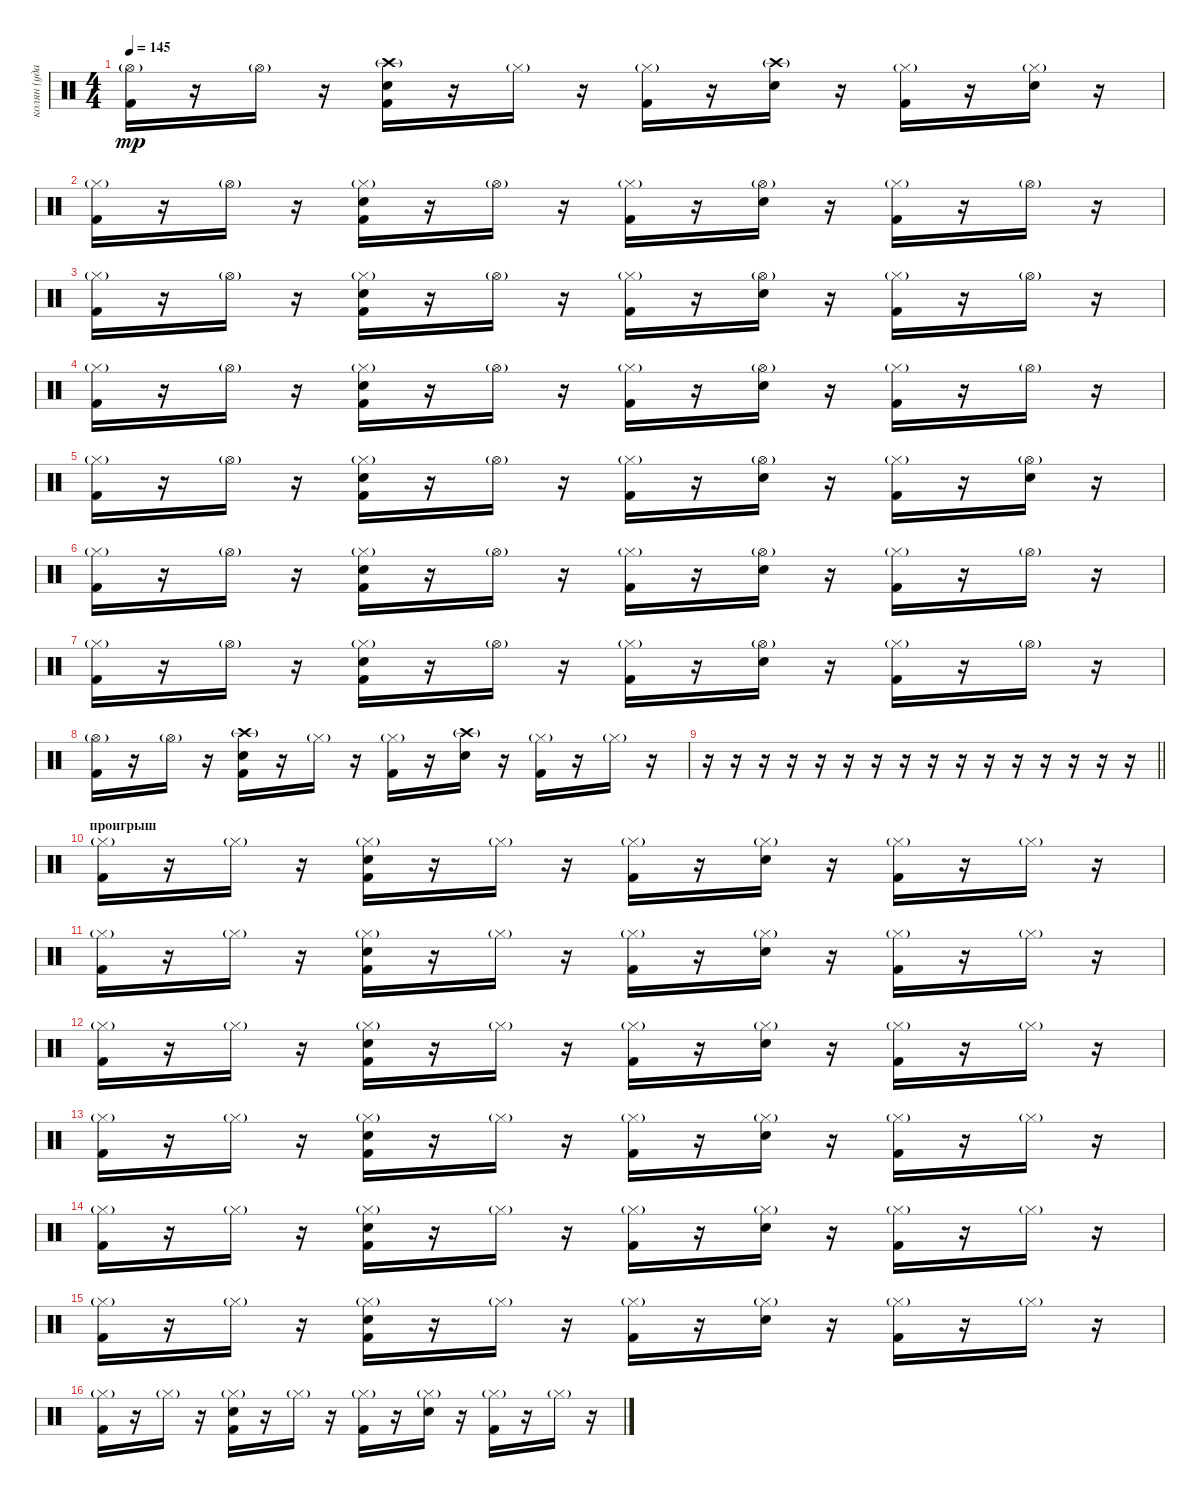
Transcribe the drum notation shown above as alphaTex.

\track ("колян (ударные)" "колян (уда") {instrument percussion}
\staff {score}
\articulation defaults
\ts (4 4)
\tempo 145
\clef neutral
\ks c
("Kick (hit) 2" "Hi-Hat (open)"{g}).16{dy mp} r.16 "Hi-Hat (open)"{g}.16 r.16 ("Snare (hit) 2" "Kick (hit) 2" "Crash high (hit)"{g}).16 r.16 "Hi-Hat (closed)"{g}.16 r.16 ("Kick (hit) 2" "Hi-Hat (closed)"{g}).16 r.16 ("Snare (hit) 2" "Crash high (hit)"{g}).16 r.16 ("Kick (hit) 2" "Hi-Hat (closed)"{g}).16 r.16 ("Snare (hit) 2" "Hi-Hat (closed)"{g}).16 r.16 |
("Kick (hit) 2" "Hi-Hat (closed)"{g}).16 r.16 "Hi-Hat (open)"{g}.16 r.16 ("Snare (hit) 2" "Kick (hit) 2" "Hi-Hat (closed)"{g}).16 r.16 "Hi-Hat (open)"{g}.16 r.16 ("Kick (hit) 2" "Hi-Hat (closed)"{g}).16 r.16 ("Snare (hit) 2" "Hi-Hat (open)"{g}).16 r.16 ("Kick (hit) 2" "Hi-Hat (closed)"{g}).16 r.16 "Hi-Hat (open)"{g}.16 r.16 |
("Kick (hit) 2" "Hi-Hat (closed)"{g}).16 r.16 "Hi-Hat (open)"{g}.16 r.16 ("Snare (hit) 2" "Kick (hit) 2" "Hi-Hat (closed)"{g}).16 r.16 "Hi-Hat (open)"{g}.16 r.16 ("Kick (hit) 2" "Hi-Hat (closed)"{g}).16 r.16 ("Snare (hit) 2" "Hi-Hat (open)"{g}).16 r.16 ("Kick (hit) 2" "Hi-Hat (closed)"{g}).16 r.16 "Hi-Hat (open)"{g}.16 r.16 |
("Kick (hit) 2" "Hi-Hat (closed)"{g}).16 r.16 "Hi-Hat (open)"{g}.16 r.16 ("Snare (hit) 2" "Kick (hit) 2" "Hi-Hat (closed)"{g}).16 r.16 "Hi-Hat (open)"{g}.16 r.16 ("Kick (hit) 2" "Hi-Hat (closed)"{g}).16 r.16 ("Snare (hit) 2" "Hi-Hat (open)"{g}).16 r.16 ("Kick (hit) 2" "Hi-Hat (closed)"{g}).16 r.16 "Hi-Hat (open)"{g}.16 r.16 |
("Kick (hit) 2" "Hi-Hat (closed)"{g}).16 r.16 "Hi-Hat (open)"{g}.16 r.16 ("Snare (hit) 2" "Kick (hit) 2" "Hi-Hat (closed)"{g}).16 r.16 "Hi-Hat (open)"{g}.16 r.16 ("Kick (hit) 2" "Hi-Hat (closed)"{g}).16 r.16 ("Snare (hit) 2" "Hi-Hat (open)"{g}).16 r.16 ("Kick (hit) 2" "Hi-Hat (closed)"{g}).16 r.16 ("Snare (hit) 2" "Hi-Hat (open)"{g}).16 r.16 |
("Kick (hit) 2" "Hi-Hat (closed)"{g}).16 r.16 "Hi-Hat (open)"{g}.16 r.16 ("Snare (hit) 2" "Kick (hit) 2" "Hi-Hat (closed)"{g}).16 r.16 "Hi-Hat (open)"{g}.16 r.16 ("Kick (hit) 2" "Hi-Hat (closed)"{g}).16 r.16 ("Snare (hit) 2" "Hi-Hat (open)"{g}).16 r.16 ("Kick (hit) 2" "Hi-Hat (closed)"{g}).16 r.16 "Hi-Hat (open)"{g}.16 r.16 |
("Kick (hit) 2" "Hi-Hat (closed)"{g}).16 r.16 "Hi-Hat (open)"{g}.16 r.16 ("Snare (hit) 2" "Kick (hit) 2" "Hi-Hat (closed)"{g}).16 r.16 "Hi-Hat (open)"{g}.16 r.16 ("Kick (hit) 2" "Hi-Hat (closed)"{g}).16 r.16 ("Snare (hit) 2" "Hi-Hat (open)"{g}).16 r.16 ("Kick (hit) 2" "Hi-Hat (closed)"{g}).16 r.16 "Hi-Hat (open)"{g}.16 r.16 |
("Kick (hit) 2" "Hi-Hat (open)"{g}).16 r.16 "Hi-Hat (open)"{g}.16 r.16 ("Snare (hit) 2" "Kick (hit) 2" "Crash high (hit)"{g}).16 r.16 "Hi-Hat (closed)"{g}.16 r.16 ("Kick (hit) 2" "Hi-Hat (closed)"{g}).16 r.16 ("Snare (hit) 2" "Crash high (hit)"{g}).16 r.16 ("Kick (hit) 2" "Hi-Hat (closed)"{g}).16 r.16 "Hi-Hat (closed)"{g}.16 r.16 |
\barLineRight lightlight
r.16 r.16 r.16 r.16 r.16 r.16 r.16 r.16 r.16 r.16 r.16 r.16 r.16 r.16 r.16 r.16 |
\section ("" "проигрыш")
("Kick (hit) 2" "Hi-Hat (closed)"{g}).16 r.16 "Hi-Hat (closed)"{g}.16 r.16 ("Snare (hit) 2" "Kick (hit) 2" "Hi-Hat (closed)"{g}).16 r.16 "Hi-Hat (closed)"{g}.16 r.16 ("Kick (hit) 2" "Hi-Hat (closed)"{g}).16 r.16 ("Snare (hit) 2" "Hi-Hat (closed)"{g}).16 r.16 ("Kick (hit) 2" "Hi-Hat (closed)"{g}).16 r.16 "Hi-Hat (closed)"{g}.16 r.16 |
("Kick (hit) 2" "Hi-Hat (closed)"{g}).16 r.16 "Hi-Hat (closed)"{g}.16 r.16 ("Snare (hit) 2" "Kick (hit) 2" "Hi-Hat (closed)"{g}).16 r.16 "Hi-Hat (closed)"{g}.16 r.16 ("Kick (hit) 2" "Hi-Hat (closed)"{g}).16 r.16 ("Snare (hit) 2" "Hi-Hat (closed)"{g}).16 r.16 ("Kick (hit) 2" "Hi-Hat (closed)"{g}).16 r.16 "Hi-Hat (closed)"{g}.16 r.16 |
("Kick (hit) 2" "Hi-Hat (closed)"{g}).16 r.16 "Hi-Hat (closed)"{g}.16 r.16 ("Snare (hit) 2" "Kick (hit) 2" "Hi-Hat (closed)"{g}).16 r.16 "Hi-Hat (closed)"{g}.16 r.16 ("Kick (hit) 2" "Hi-Hat (closed)"{g}).16 r.16 ("Snare (hit) 2" "Hi-Hat (closed)"{g}).16 r.16 ("Kick (hit) 2" "Hi-Hat (closed)"{g}).16 r.16 "Hi-Hat (closed)"{g}.16 r.16 |
("Kick (hit) 2" "Hi-Hat (closed)"{g}).16 r.16 "Hi-Hat (closed)"{g}.16 r.16 ("Snare (hit) 2" "Kick (hit) 2" "Hi-Hat (closed)"{g}).16 r.16 "Hi-Hat (closed)"{g}.16 r.16 ("Kick (hit) 2" "Hi-Hat (closed)"{g}).16 r.16 ("Snare (hit) 2" "Hi-Hat (closed)"{g}).16 r.16 ("Kick (hit) 2" "Hi-Hat (closed)"{g}).16 r.16 "Hi-Hat (closed)"{g}.16 r.16 |
("Kick (hit) 2" "Hi-Hat (closed)"{g}).16 r.16 "Hi-Hat (closed)"{g}.16 r.16 ("Snare (hit) 2" "Kick (hit) 2" "Hi-Hat (closed)"{g}).16 r.16 "Hi-Hat (closed)"{g}.16 r.16 ("Kick (hit) 2" "Hi-Hat (closed)"{g}).16 r.16 ("Snare (hit) 2" "Hi-Hat (closed)"{g}).16 r.16 ("Kick (hit) 2" "Hi-Hat (closed)"{g}).16 r.16 "Hi-Hat (closed)"{g}.16 r.16 |
("Kick (hit) 2" "Hi-Hat (closed)"{g}).16 r.16 "Hi-Hat (closed)"{g}.16 r.16 ("Snare (hit) 2" "Kick (hit) 2" "Hi-Hat (closed)"{g}).16 r.16 "Hi-Hat (closed)"{g}.16 r.16 ("Kick (hit) 2" "Hi-Hat (closed)"{g}).16 r.16 ("Snare (hit) 2" "Hi-Hat (closed)"{g}).16 r.16 ("Kick (hit) 2" "Hi-Hat (closed)"{g}).16 r.16 "Hi-Hat (closed)"{g}.16 r.16 |
("Kick (hit) 2" "Hi-Hat (closed)"{g}).16 r.16 "Hi-Hat (closed)"{g}.16 r.16 ("Snare (hit) 2" "Kick (hit) 2" "Hi-Hat (closed)"{g}).16 r.16 "Hi-Hat (closed)"{g}.16 r.16 ("Kick (hit) 2" "Hi-Hat (closed)"{g}).16 r.16 ("Snare (hit) 2" "Hi-Hat (closed)"{g}).16 r.16 ("Kick (hit) 2" "Hi-Hat (closed)"{g}).16 r.16 "Hi-Hat (closed)"{g}.16 r.16
